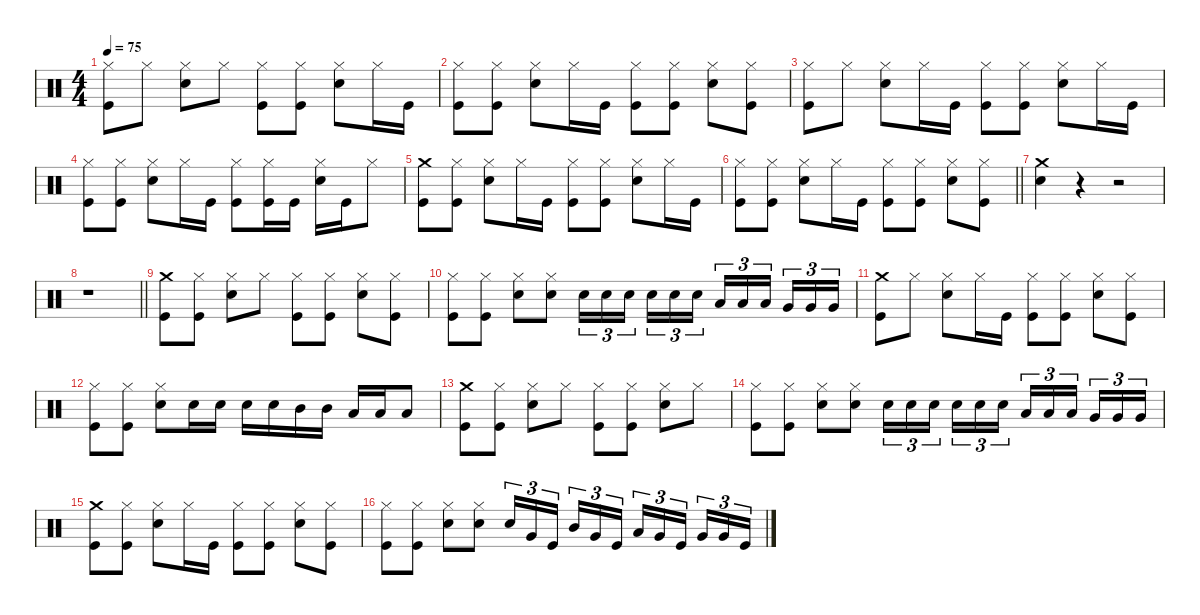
\defaultSystemsLayout 4
\hideDynamics
\bracketExtendMode nobrackets
\singleTrackTrackNamePolicy hidden
\multiTrackTrackNamePolicy hidden
\otherSystemsTrackNameOrientation horizontal
\track ("John Bonham (Bateria)" "drm.") {instrument percussion}
\staff {score}
\articulation defaults
\ts (4 4)
\tempo 75
\clef neutral
\ks c
("Hi-Hat (closed)" "Kick (hit)").8{dy fff beam Down} "Hi-Hat (closed)".8{beam Down} ("Hi-Hat (closed)" "Snare (hit) 2").8{beam Down} "Hi-Hat (closed)".8{beam Down} ("Hi-Hat (closed)" "Kick (hit)").8{beam Down} ("Hi-Hat (closed)" "Kick (hit)").8{beam Down} ("Hi-Hat (closed)" "Snare (hit) 2").8{beam Down} "Hi-Hat (closed)".16{beam Down} "Kick (hit)".16{beam Down} |
("Hi-Hat (closed)" "Kick (hit)").8{beam Down} ("Hi-Hat (closed)" "Kick (hit)").8{beam Down} ("Hi-Hat (closed)" "Snare (hit) 2").8{beam Down} "Hi-Hat (closed)".16{beam Down} "Kick (hit)".16{beam Down} ("Hi-Hat (closed)" "Kick (hit)").8{beam Down} ("Hi-Hat (closed)" "Kick (hit)").8{beam Down} ("Hi-Hat (closed)" "Snare (hit) 2").8{beam Down} ("Hi-Hat (closed)" "Kick (hit)").8{beam Down} |
("Hi-Hat (closed)" "Kick (hit)").8{beam Down} "Hi-Hat (closed)".8{beam Down} ("Hi-Hat (closed)" "Snare (hit) 2").8{beam Down} "Hi-Hat (closed)".16{beam Down} "Kick (hit)".16{beam Down} ("Hi-Hat (closed)" "Kick (hit)").8{beam Down} ("Hi-Hat (closed)" "Kick (hit)").8{beam Down} ("Hi-Hat (closed)" "Snare (hit) 2").8{beam Down} "Hi-Hat (closed)".16{beam Down} "Kick (hit)".16{beam Down} |
("Hi-Hat (closed)" "Kick (hit)").8{beam Down} ("Hi-Hat (closed)" "Kick (hit)").8{beam Down} ("Hi-Hat (closed)" "Snare (hit) 2").8{beam Down} "Hi-Hat (closed)".16{beam Down} "Kick (hit)".16{beam Down} ("Hi-Hat (closed)" "Kick (hit)").8{beam Down} ("Hi-Hat (closed)" "Kick (hit)").16{beam Down} "Kick (hit)".16{beam Down} ("Hi-Hat (closed)" "Snare (hit) 2").16{beam Down} "Kick (hit)".16{beam Down} "Hi-Hat (closed)".8{beam Down} |
("Crash medium (hit)" "Kick (hit)").8{beam Down} ("Hi-Hat (closed)" "Kick (hit)").8{beam Down} ("Hi-Hat (closed)" "Snare (hit) 2").8{beam Down} "Hi-Hat (closed)".16{beam Down} "Kick (hit)".16{beam Down} ("Hi-Hat (closed)" "Kick (hit)").8{beam Down} ("Hi-Hat (closed)" "Kick (hit)").8{beam Down} ("Hi-Hat (closed)" "Snare (hit) 2").8{beam Down} "Hi-Hat (closed)".16{beam Down} "Kick (hit)".16{beam Down} |
\barLineRight lightlight
("Hi-Hat (closed)" "Kick (hit)").8{beam Down} ("Hi-Hat (closed)" "Kick (hit)").8{beam Down} ("Hi-Hat (closed)" "Snare (hit) 2").8{beam Down} "Hi-Hat (closed)".16{beam Down} "Kick (hit)".16{beam Down} ("Hi-Hat (closed)" "Kick (hit)").8{beam Down} ("Hi-Hat (closed)" "Kick (hit)").8{beam Down} ("Hi-Hat (closed)" "Snare (hit) 2").8{beam Down} ("Hi-Hat (closed)" "Kick (hit)").8{beam Down} |
("Crash medium (hit)" "Snare (hit) 2").4{beam Down} r.4{beam Down} r.2{beam Down} |
\barLineRight lightlight
r.1{beam Down} |
("Crash medium (hit)" "Kick (hit)").8{beam Down} ("Hi-Hat (closed)" "Kick (hit)").8{beam Down} ("Hi-Hat (closed)" "Snare (hit) 2").8{beam Down} "Hi-Hat (closed)".8{beam Down} ("Hi-Hat (closed)" "Kick (hit)").8{beam Down} ("Hi-Hat (closed)" "Kick (hit)").8{beam Down} ("Hi-Hat (closed)" "Snare (hit) 2").8{beam Down} ("Hi-Hat (closed)" "Kick (hit)").8{beam Down} |
("Hi-Hat (closed)" "Kick (hit)").8{beam Down} ("Hi-Hat (closed)" "Kick (hit)").8{beam Down} ("Hi-Hat (closed)" "Snare (hit) 2").8{beam Down} ("Hi-Hat (closed)" "Snare (hit) 2").8{beam Down} "Snare (hit) 2".16{tu (3 2) beam Down} "Snare (hit) 2".16{tu (3 2) beam Down} "Snare (hit) 2".16{tu (3 2) beam Down} "Snare (hit) 2".16{tu (3 2) beam Down} "Snare (hit) 2".16{tu (3 2) beam Down} "Snare (hit) 2".16{tu (3 2) beam Down} "Low Tom (hit)".16{tu (3 2) beam Up} "Low Tom (hit)".16{tu (3 2) beam Up} "Low Tom (hit)".16{tu (3 2) beam Up} "Very Low Tom (hit)".16{tu (3 2) beam Up} "Very Low Tom (hit)".16{tu (3 2) beam Up} "Very Low Tom (hit)".16{tu (3 2) beam Up} |
("Crash medium (hit)" "Kick (hit)").8{beam Down} "Hi-Hat (closed)".8{beam Down} ("Hi-Hat (closed)" "Snare (hit) 2").8{beam Down} "Hi-Hat (closed)".16{beam Down} "Kick (hit)".16{beam Down} ("Hi-Hat (closed)" "Kick (hit)").8{beam Down} ("Hi-Hat (closed)" "Kick (hit)").8{beam Down} ("Hi-Hat (closed)" "Snare (hit) 2").8{beam Down} ("Hi-Hat (closed)" "Kick (hit)").8{beam Down} |
("Hi-Hat (closed)" "Kick (hit)").8{beam Down} ("Hi-Hat (closed)" "Kick (hit)").8{beam Down} ("Hi-Hat (closed)" "Snare (hit) 2").8{beam Down} "Snare (hit) 2".16{beam Down} "Snare (hit) 2".16{beam Down} "Snare (hit) 2".16{beam Down} "Snare (hit) 2".16{beam Down} "Mid Tom (hit)".16{beam Down} "Mid Tom (hit)".16{beam Down} "Low Tom (hit)".16{beam Up} "Low Tom (hit)".16{beam Up} "Low Tom (hit)".8{beam Up} |
("Crash medium (hit)" "Kick (hit)").8{beam Down} ("Hi-Hat (closed)" "Kick (hit)").8{beam Down} ("Hi-Hat (closed)" "Snare (hit) 2").8{beam Down} "Hi-Hat (closed)".8{beam Down} ("Hi-Hat (closed)" "Kick (hit)").8{beam Down} ("Hi-Hat (closed)" "Kick (hit)").8{beam Down} ("Hi-Hat (closed)" "Snare (hit) 2").8{beam Down} "Hi-Hat (closed)".8{beam Down} |
("Hi-Hat (closed)" "Kick (hit)").8{beam Down} ("Hi-Hat (closed)" "Kick (hit)").8{beam Down} ("Hi-Hat (closed)" "Snare (hit) 2").8{beam Down} ("Hi-Hat (closed)" "Snare (hit) 2").8{beam Down} "Snare (hit) 2".16{tu (3 2) beam Down} "Snare (hit) 2".16{tu (3 2) beam Down} "Snare (hit) 2".16{tu (3 2) beam Down} "Snare (hit) 2".16{tu (3 2) beam Down} "Snare (hit) 2".16{tu (3 2) beam Down} "Snare (hit) 2".16{tu (3 2) beam Down} "Low Tom (hit)".16{tu (3 2) beam Up} "Low Tom (hit)".16{tu (3 2) beam Up} "Low Tom (hit)".16{tu (3 2) beam Up} "Very Low Tom (hit)".16{tu (3 2) beam Up} "Very Low Tom (hit)".16{tu (3 2) beam Up} "Very Low Tom (hit)".16{tu (3 2) beam Up} |
("Crash medium (hit)" "Kick (hit)").8{beam Down} ("Hi-Hat (closed)" "Kick (hit)").8{beam Down} ("Hi-Hat (closed)" "Snare (hit) 2").8{beam Down} "Hi-Hat (closed)".16{beam Down} "Kick (hit)".16{beam Down} ("Hi-Hat (closed)" "Kick (hit)").8{beam Down} ("Hi-Hat (closed)" "Kick (hit)").8{beam Down} ("Hi-Hat (closed)" "Snare (hit) 2").8{beam Down} ("Hi-Hat (closed)" "Kick (hit)").8{beam Down} |
("Hi-Hat (closed)" "Kick (hit)").8{beam Down} ("Hi-Hat (closed)" "Kick (hit)").8{beam Down} ("Hi-Hat (closed)" "Snare (hit) 2").8{beam Down} ("Hi-Hat (closed)" "Snare (hit) 2").8{beam Down} "Snare (hit) 2".16{tu (3 2) beam Up} "Very Low Tom (hit)".16{tu (3 2) beam Up} "Kick (hit)".16{tu (3 2) beam Up} "Mid Tom (hit)".16{tu (3 2) beam Up} "Very Low Tom (hit)".16{tu (3 2) beam Up} "Kick (hit)".16{tu (3 2) beam Up} "Low Tom (hit)".16{tu (3 2) beam Up} "Very Low Tom (hit)".16{tu (3 2) beam Up} "Kick (hit)".16{tu (3 2) beam Up} "Very Low Tom (hit)".16{tu (3 2) beam Up} "Very Low Tom (hit)".16{tu (3 2) beam Up} "Kick (hit)".16{tu (3 2) beam Up}
